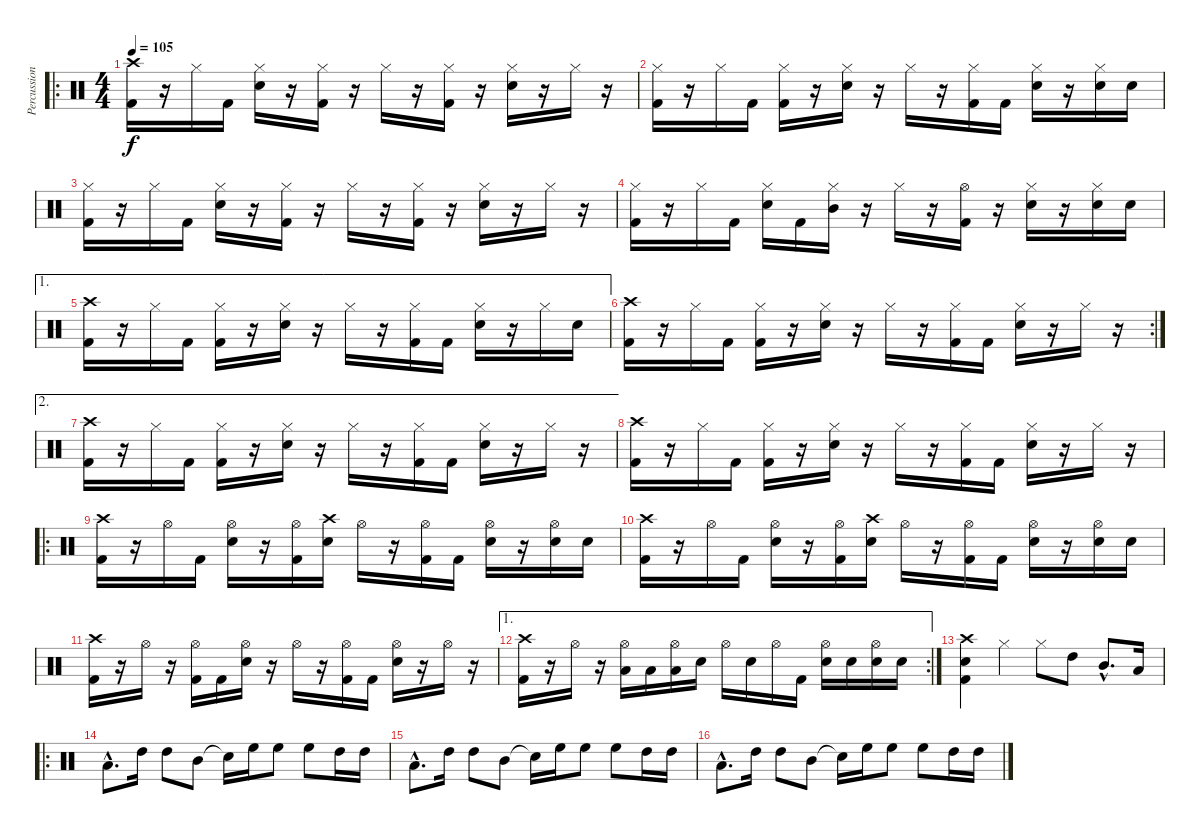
\track ("Percussion" "Percussion") {instrument percussion}
\staff {score}
\articulation defaults
\ro
\ts (4 4)
\tempo 105
\clef neutral
\ks c
("Crash high (hit)" "Kick (hit) 2").16{dy f} r.16 "Hi-Hat (closed)".16 "Kick (hit) 2".16 ("Hi-Hat (closed)" "Snare (hit) 2").16 r.16 ("Hi-Hat (closed)" "Kick (hit) 2").16 r.16 "Hi-Hat (closed)".16 r.16 ("Hi-Hat (closed)" "Kick (hit) 2").16 r.16 ("Hi-Hat (closed)" "Snare (hit) 2").16 r.16 "Hi-Hat (closed)".16 r.16 |
("Hi-Hat (closed)" "Kick (hit) 2").16 r.16 "Hi-Hat (closed)".16 "Kick (hit) 2".16 ("Hi-Hat (closed)" "Kick (hit) 2").16 r.16 ("Hi-Hat (closed)" "Snare (hit) 2").16 r.16 "Hi-Hat (closed)".16 r.16 ("Hi-Hat (closed)" "Kick (hit) 2").16 "Kick (hit) 2".16 ("Hi-Hat (closed)" "Snare (hit) 2").16 r.16 ("Hi-Hat (closed)" "Snare (hit) 2").16 "Snare (hit) 2".16 |
("Hi-Hat (closed)" "Kick (hit) 2").16 r.16 "Hi-Hat (closed)".16 "Kick (hit) 2".16 ("Hi-Hat (closed)" "Snare (hit) 2").16 r.16 ("Hi-Hat (closed)" "Kick (hit) 2").16 r.16 "Hi-Hat (closed)".16 r.16 ("Hi-Hat (closed)" "Kick (hit) 2").16 r.16 ("Hi-Hat (closed)" "Snare (hit) 2").16 r.16 "Hi-Hat (closed)".16 r.16 |
("Hi-Hat (closed)" "Kick (hit) 2").16 r.16 "Hi-Hat (closed)".16 "Kick (hit) 2".16 ("Hi-Hat (closed)" "Snare (hit) 2").16 "Kick (hit) 2".16 ("Hi-Hat (closed)" "Mid Tom (hit)").16 r.16 "Hi-Hat (closed)".16 r.16 ("Hi-Hat (open)" "Kick (hit) 2").16 r.16 ("Hi-Hat (closed)" "Snare (hit) 2").16 r.16 ("Hi-Hat (closed)" "Snare (hit) 2").16 "Snare (hit) 2".16 |
\ae 1
("Crash high (hit)" "Kick (hit) 2").16 r.16 "Hi-Hat (closed)".16 "Kick (hit) 2".16 ("Hi-Hat (closed)" "Kick (hit) 2").16 r.16 ("Hi-Hat (closed)" "Snare (hit) 2").16 r.16 "Hi-Hat (closed)".16 r.16 ("Hi-Hat (closed)" "Kick (hit) 2").16 "Kick (hit) 2".16 ("Hi-Hat (closed)" "Snare (hit) 2").16 r.16 "Hi-Hat (closed)".16 "Snare (hit) 2".16 |
\rc 2
("Crash high (hit)" "Kick (hit) 2").16 r.16 "Hi-Hat (closed)".16 "Kick (hit) 2".16 ("Hi-Hat (closed)" "Kick (hit) 2").16 r.16 ("Hi-Hat (closed)" "Snare (hit) 2").16 r.16 "Hi-Hat (closed)".16 r.16 ("Hi-Hat (closed)" "Kick (hit) 2").16 "Kick (hit) 2".16 ("Hi-Hat (closed)" "Snare (hit) 2").16 r.16 "Hi-Hat (closed)".16 r.16 |
\ae 2
("Crash high (hit)" "Kick (hit) 2").16 r.16 "Hi-Hat (closed)".16 "Kick (hit) 2".16 ("Hi-Hat (closed)" "Kick (hit) 2").16 r.16 ("Hi-Hat (closed)" "Snare (hit) 2").16 r.16 "Hi-Hat (closed)".16 r.16 ("Hi-Hat (closed)" "Kick (hit) 2").16 "Kick (hit) 2".16 ("Hi-Hat (closed)" "Snare (hit) 2").16 r.16 "Hi-Hat (closed)".16 r.16 |
("Crash high (hit)" "Kick (hit) 2").16 r.16 "Hi-Hat (closed)".16 "Kick (hit) 2".16 ("Hi-Hat (closed)" "Kick (hit) 2").16 r.16 ("Hi-Hat (closed)" "Snare (hit) 2").16 r.16 "Hi-Hat (closed)".16 r.16 ("Hi-Hat (closed)" "Kick (hit) 2").16 "Kick (hit) 2".16 ("Hi-Hat (closed)" "Snare (hit) 2").16 r.16 "Hi-Hat (closed)".16 r.16 |
\ro
("Crash high (hit)" "Kick (hit) 2").16 r.16 "Hi-Hat (open)".16 "Kick (hit) 2".16 ("Hi-Hat (open)" "Snare (hit) 2").16 r.16 ("Hi-Hat (open)" "Kick (hit) 2").16 ("Crash high (hit)" "Snare (hit) 2").16 "Hi-Hat (open)".16 r.16 ("Hi-Hat (open)" "Kick (hit) 2").16 "Kick (hit) 2".16 ("Hi-Hat (open)" "Snare (hit) 2").16 r.16 ("Hi-Hat (open)" "Snare (hit) 2").16 "Snare (hit) 2".16 |
("Crash high (hit)" "Kick (hit) 2").16 r.16 "Hi-Hat (open)".16 "Kick (hit) 2".16 ("Hi-Hat (open)" "Snare (hit) 2").16 r.16 ("Hi-Hat (open)" "Kick (hit) 2").16 ("Crash high (hit)" "Snare (hit) 2").16 "Hi-Hat (open)".16 r.16 ("Hi-Hat (open)" "Kick (hit) 2").16 "Kick (hit) 2".16 ("Hi-Hat (open)" "Snare (hit) 2").16 r.16 ("Hi-Hat (open)" "Snare (hit) 2").16 "Snare (hit) 2".16 |
("Crash high (hit)" "Kick (hit) 2").16 r.16 "Hi-Hat (open)".16 r.16 ("Hi-Hat (open)" "Kick (hit) 2").16 "Kick (hit) 2".16 ("Hi-Hat (open)" "Snare (hit) 2").16 r.16 "Hi-Hat (open)".16 r.16 ("Hi-Hat (open)" "Kick (hit) 2").16 "Kick (hit) 2".16 ("Hi-Hat (open)" "Snare (hit) 2").16 r.16 "Hi-Hat (open)".16 r.16 |
\ae 1
\rc 2
("Crash high (hit)" "Kick (hit) 2").16 r.16 "Hi-Hat (open)".16 r.16 ("Hi-Hat (open)" "Low Floor Tom (hit)").16 "Low Floor Tom (hit)".16 ("Hi-Hat (open)" "Low Floor Tom (hit)").16 "Snare (hit) 2".16 "Hi-Hat (open)".16 "Snare (hit) 2".16 "Hi-Hat (open)".16 "Kick (hit) 2".16 ("Hi-Hat (open)" "Snare (hit) 2").16 "Snare (hit) 2".16 ("Hi-Hat (open)" "Snare (hit) 2").16 "Snare (hit) 2".16 |
("Crash high (hit)" "Snare (hit) 2" "Kick (hit) 2").4 "Hi-Hat (closed)".4 "Hi-Hat (closed)".8 "High Tom (hit)".8 "Mid Tom (hit)"{hac}.8{d} "Low Floor Tom (hit)".16 |
\ro "Low Floor Tom (hit)"{hac}.8{d} "High Tom (hit)".16 "High Tom (hit)".8 "Mid Tom (hit)".8 "Snare (hit)"{t}.16 "High Floor Tom (hit)".16 "High Floor Tom (hit)".8 "High Floor Tom (hit)".8 "High Tom (hit)".16 "High Tom (hit)".16
|
"Low Floor Tom (hit)"{hac}.8{d} "High Tom (hit)".16 "High Tom (hit)".8 "Mid Tom (hit)".8 "Snare (hit)"{t}.16 "High Floor Tom (hit)".16 "High Floor Tom (hit)".8 "High Floor Tom (hit)".8 "High Tom (hit)".16 "High Tom (hit)".16 |
"Low Floor Tom (hit)"{hac}.8{d} "High Tom (hit)".16 "High Tom (hit)".8 "Mid Tom (hit)".8 "Snare (hit)"{t}.16 "High Floor Tom (hit)".16 "High Floor Tom (hit)".8 "High Floor Tom (hit)".8 "High Tom (hit)".16 "High Tom (hit)".16
